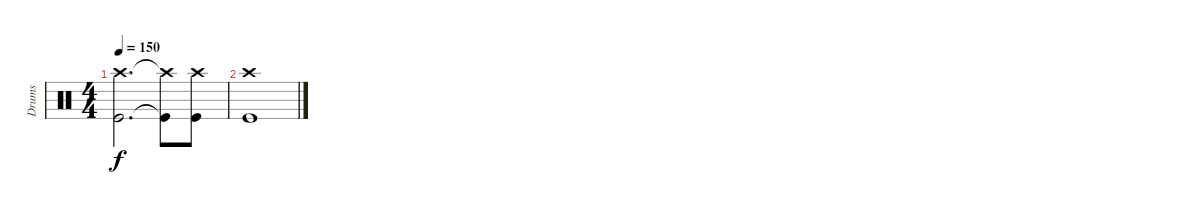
\track ("Drums" "Drums") {instrument percussion}
\staff {score}
\articulation defaults
\ts (4 4)
\tempo 150
\clef neutral
\ks c
("Crash high (hit)" "Kick (hit)").2{d dy f} ("Crash high (hit)"{t} "Kick (hit)"{t}).8 ("Crash high (hit)" "Kick (hit)").8 |
("Crash high (hit)" "Kick (hit)").1
